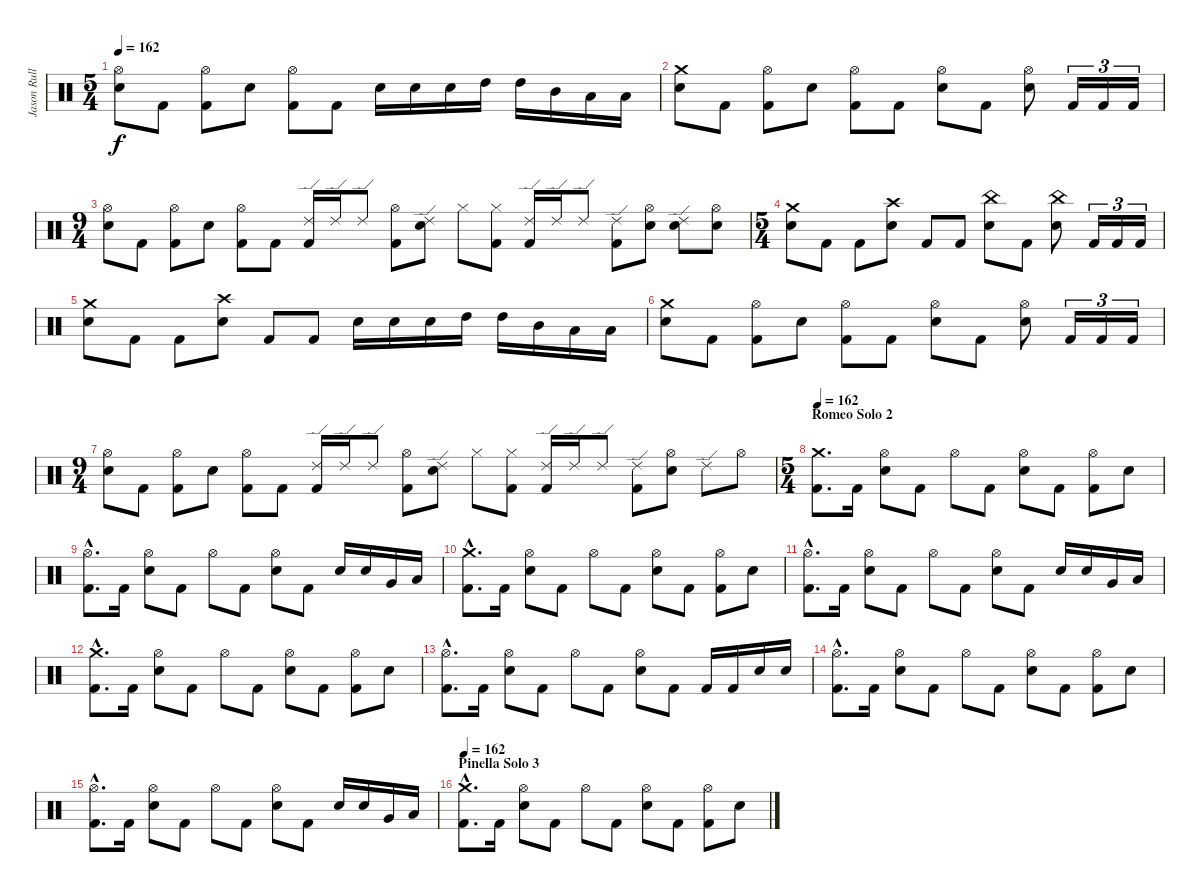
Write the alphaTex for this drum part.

\track ("Jason Rullo" "Jason Rull") {instrument percussion}
\staff {score}
\articulation defaults
\ts (5 4)
\tempo 162
\clef neutral
\ks c
("Hi-Hat (open)" "Electric Snare (hit)").8{dy f} "Kick (hit) 2".8 ("Hi-Hat (open)" "Kick (hit) 2").8 "Electric Snare (hit)".8 ("Hi-Hat (open)" "Kick (hit) 2").8 "Kick (hit) 2".8 "Electric Snare (hit)".16 "Electric Snare (hit)".16 "Electric Snare (hit)".16 "High Tom (hit)".16 "High Tom (hit)".16 "Mid Tom (hit)".16 "Low Tom (hit)".16 "Low Tom (hit)".16 |
("Crash medium (hit)" "Electric Snare (hit)").8 "Kick (hit) 2".8 ("Hi-Hat (open)" "Kick (hit) 2").8 "Electric Snare (hit)".8 ("Hi-Hat (open)" "Kick (hit) 2").8 "Kick (hit) 2".8 ("Hi-Hat (open)" "Electric Snare (hit)").8 "Kick (hit) 2".8 ("Hi-Hat (open)" "Electric Snare (hit)").8 "Kick (hit) 2".16{tu (3 2)} "Kick (hit) 2".16{tu (3 2)} "Kick (hit) 2".16{tu (3 2)} |
\ts (9 4)
("Hi-Hat (open)" "Electric Snare (hit)").8 "Kick (hit) 2".8 ("Hi-Hat (open)" "Kick (hit) 2").8 "Electric Snare (hit)".8 ("Hi-Hat (open)" "Kick (hit) 2").8 "Kick (hit) 2".8 ("Ride (edge) 2" "Kick (hit) 2").16 "Ride (edge) 2".16 "Ride (edge) 2".8 ("Hi-Hat (open)" "Kick (hit) 2").8 ("Ride (edge) 2" "Electric Snare (hit)").8 "Hi-Hat (closed)".8 ("Hi-Hat (closed)" "Kick (hit) 2").8 ("Ride (edge) 2" "Kick (hit) 2").16 "Ride (edge) 2".16 "Ride (edge) 2".8 ("Ride (edge) 2" "Kick (hit) 2").8 ("Hi-Hat (open)" "Electric Snare (hit)").8 ("Electric Snare (hit)" "Ride (edge) 2").8 ("Electric Snare (hit)" "Hi-Hat (open)").8 |
\ts (5 4)
("Crash medium (hit)" "Electric Snare (hit)").8 "Kick (hit) 2".8 "Kick (hit) 2".8 ("Crash high (hit)" "Electric Snare (hit)").8 "Kick (hit) 2".8 "Kick (hit) 2".8 ("China (hit)" "Electric Snare (hit)").8 "Kick (hit) 2".8 ("China (hit)" "Electric Snare (hit)").8 "Kick (hit) 2".16{tu (3 2)} "Kick (hit) 2".16{tu (3 2)} "Kick (hit) 2".16{tu (3 2)} |
("Crash medium (hit)" "Electric Snare (hit)").8 "Kick (hit) 2".8 "Kick (hit) 2".8 ("Crash high (hit)" "Electric Snare (hit)").8 "Kick (hit) 2".8 "Kick (hit) 2".8 "Electric Snare (hit)".16 "Electric Snare (hit)".16 "Electric Snare (hit)".16 "High Tom (hit)".16 "High Tom (hit)".16 "Mid Tom (hit)".16 "Low Tom (hit)".16 "Low Tom (hit)".16 |
("Crash medium (hit)" "Electric Snare (hit)").8 "Kick (hit) 2".8 ("Hi-Hat (open)" "Kick (hit) 2").8 "Electric Snare (hit)".8 ("Hi-Hat (open)" "Kick (hit) 2").8 "Kick (hit) 2".8 ("Hi-Hat (open)" "Electric Snare (hit)").8 "Kick (hit) 2".8 ("Hi-Hat (open)" "Electric Snare (hit)").8 "Kick (hit) 2".16{tu (3 2)} "Kick (hit) 2".16{tu (3 2)} "Kick (hit) 2".16{tu (3 2)} |
\ts (9 4)
("Hi-Hat (open)" "Electric Snare (hit)").8 "Kick (hit) 2".8 ("Hi-Hat (open)" "Kick (hit) 2").8 "Electric Snare (hit)".8 ("Hi-Hat (open)" "Kick (hit) 2").8 "Kick (hit) 2".8 ("Ride (edge) 2" "Kick (hit) 2").16 "Ride (edge) 2".16 "Ride (edge) 2".8 ("Hi-Hat (open)" "Kick (hit) 2").8 ("Ride (edge) 2" "Electric Snare (hit)").8 "Hi-Hat (closed)".8 ("Hi-Hat (closed)" "Kick (hit) 2").8 ("Ride (edge) 2" "Kick (hit) 2").16 "Ride (edge) 2".16 "Ride (edge) 2".8 ("Ride (edge) 2" "Kick (hit) 2").8 ("Hi-Hat (open)" "Electric Snare (hit)").8 "Ride (edge) 2".8 "Hi-Hat (open)".8 |
\ts (5 4)
\section ("" "Romeo Solo 2")
\tempo 162
("Crash medium (hit)" "Kick (hit) 2").8{d} "Kick (hit) 2".16 ("Hi-Hat (open)" "Electric Snare (hit)").8 "Kick (hit) 2".8 "Hi-Hat (open)".8 "Kick (hit) 2".8 ("Hi-Hat (open)" "Electric Snare (hit)").8 "Kick (hit) 2".8 ("Kick (hit) 2" "Hi-Hat (open)").8 "Electric Snare (hit)".8 |
("Hi-Hat (open)"{hac} "Kick (hit) 2"{hac}).8{d} "Kick (hit) 2".16 ("Hi-Hat (open)" "Electric Snare (hit)").8 "Kick (hit) 2".8 "Hi-Hat (open)".8 "Kick (hit) 2".8 ("Hi-Hat (open)" "Electric Snare (hit)").8 "Kick (hit) 2".8 "Electric Snare (hit)".16 "Electric Snare (hit)".16 "Very Low Tom (hit)".16 "Low Floor Tom (hit)".16 |
("Crash medium (hit)"{hac} "Kick (hit) 2").8{d} "Kick (hit) 2".16 ("Hi-Hat (open)" "Electric Snare (hit)").8 "Kick (hit) 2".8 "Hi-Hat (open)".8 "Kick (hit) 2".8 ("Hi-Hat (open)" "Electric Snare (hit)").8 "Kick (hit) 2".8 ("Kick (hit) 2" "Hi-Hat (open)").8 "Electric Snare (hit)".8 |
("Hi-Hat (open)"{hac} "Kick (hit) 2"{hac}).8{d} "Kick (hit) 2".16 ("Hi-Hat (open)" "Electric Snare (hit)").8 "Kick (hit) 2".8 "Hi-Hat (open)".8 "Kick (hit) 2".8 ("Hi-Hat (open)" "Electric Snare (hit)").8 "Kick (hit) 2".8 "Electric Snare (hit)".16 "Electric Snare (hit)".16 "Very Low Tom (hit)".16 "Low Floor Tom (hit)".16 |
("Crash medium (hit)"{hac} "Kick (hit) 2"{hac}).8{d} "Kick (hit) 2".16 ("Hi-Hat (open)" "Electric Snare (hit)").8 "Kick (hit) 2".8 "Hi-Hat (open)".8 "Kick (hit) 2".8 ("Hi-Hat (open)" "Electric Snare (hit)").8 "Kick (hit) 2".8 ("Kick (hit) 2" "Hi-Hat (open)").8 "Electric Snare (hit)".8 |
("Hi-Hat (open)"{hac} "Kick (hit) 2"{hac}).8{d} "Kick (hit) 2".16 ("Hi-Hat (open)" "Electric Snare (hit)").8 "Kick (hit) 2".8 "Hi-Hat (open)".8 "Kick (hit) 2".8 ("Hi-Hat (open)" "Electric Snare (hit)").8 "Kick (hit) 2".8 "Kick (hit) 2".16 "Kick (hit) 2".16 "Electric Snare (hit)".16 "Electric Snare (hit)".16 |
("Hi-Hat (open)"{hac} "Kick (hit) 2"{hac}).8{d} "Kick (hit) 2".16 ("Hi-Hat (open)" "Electric Snare (hit)").8 "Kick (hit) 2".8 "Hi-Hat (open)".8 "Kick (hit) 2".8 ("Hi-Hat (open)" "Electric Snare (hit)").8 "Kick (hit) 2".8 ("Kick (hit) 2" "Hi-Hat (open)").8 "Electric Snare (hit)".8 |
("Hi-Hat (open)"{hac} "Kick (hit) 2"{hac}).8{d} "Kick (hit) 2".16 ("Hi-Hat (open)" "Electric Snare (hit)").8 "Kick (hit) 2".8 "Hi-Hat (open)".8 "Kick (hit) 2".8 ("Hi-Hat (open)" "Electric Snare (hit)").8 "Kick (hit) 2".8 "Electric Snare (hit)".16 "Electric Snare (hit)".16 "Very Low Tom (hit)".16 "Low Floor Tom (hit)".16 |
\section ("" "Pinella Solo 3")
\tempo 162
("Crash medium (hit)"{hac} "Kick (hit) 2"{hac}).8{d} "Kick (hit) 2".16 ("Hi-Hat (open)" "Electric Snare (hit)").8 "Kick (hit) 2".8 "Hi-Hat (open)".8 "Kick (hit) 2".8 ("Hi-Hat (open)" "Electric Snare (hit)").8 "Kick (hit) 2".8 ("Kick (hit) 2" "Hi-Hat (open)").8 "Electric Snare (hit)".8
